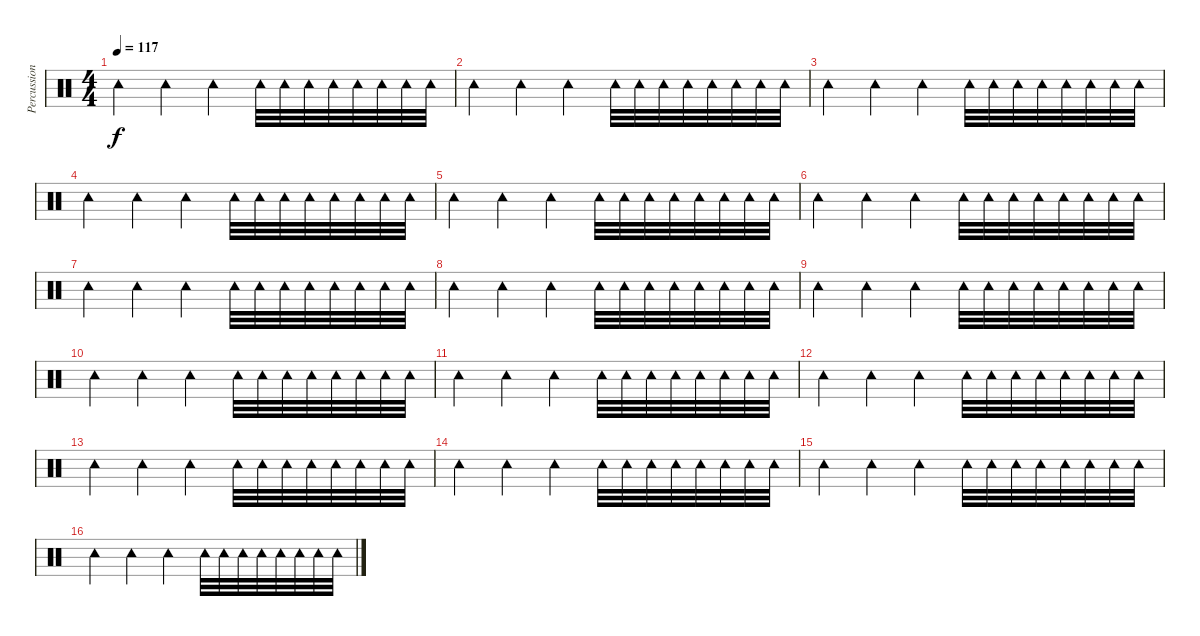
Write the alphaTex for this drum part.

\track ("Percussion" "Percussion") {instrument percussion}
\staff {score}
\articulation defaults
\ts (4 4)
\tempo 117
\clef neutral
\ks c "Tambourine (hit)".4{dy f} "Tambourine (hit)".4 "Tambourine (hit)".4 "Tambourine (hit)".32 "Tambourine (hit)".32 "Tambourine (hit)".32 "Tambourine (hit)".32 "Tambourine (hit)".32 "Tambourine (hit)".32 "Tambourine (hit)".32 "Tambourine (hit)".32
|
"Tambourine (hit)".4 "Tambourine (hit)".4 "Tambourine (hit)".4 "Tambourine (hit)".32 "Tambourine (hit)".32 "Tambourine (hit)".32 "Tambourine (hit)".32 "Tambourine (hit)".32 "Tambourine (hit)".32 "Tambourine (hit)".32 "Tambourine (hit)".32 |
"Tambourine (hit)".4 "Tambourine (hit)".4 "Tambourine (hit)".4 "Tambourine (hit)".32 "Tambourine (hit)".32 "Tambourine (hit)".32 "Tambourine (hit)".32 "Tambourine (hit)".32 "Tambourine (hit)".32 "Tambourine (hit)".32 "Tambourine (hit)".32 |
"Tambourine (hit)".4 "Tambourine (hit)".4 "Tambourine (hit)".4 "Tambourine (hit)".32 "Tambourine (hit)".32 "Tambourine (hit)".32 "Tambourine (hit)".32 "Tambourine (hit)".32 "Tambourine (hit)".32 "Tambourine (hit)".32 "Tambourine (hit)".32 |
"Tambourine (hit)".4 "Tambourine (hit)".4 "Tambourine (hit)".4 "Tambourine (hit)".32 "Tambourine (hit)".32 "Tambourine (hit)".32 "Tambourine (hit)".32 "Tambourine (hit)".32 "Tambourine (hit)".32 "Tambourine (hit)".32 "Tambourine (hit)".32 |
"Tambourine (hit)".4 "Tambourine (hit)".4 "Tambourine (hit)".4 "Tambourine (hit)".32 "Tambourine (hit)".32 "Tambourine (hit)".32 "Tambourine (hit)".32 "Tambourine (hit)".32 "Tambourine (hit)".32 "Tambourine (hit)".32 "Tambourine (hit)".32 |
"Tambourine (hit)".4 "Tambourine (hit)".4 "Tambourine (hit)".4 "Tambourine (hit)".32 "Tambourine (hit)".32 "Tambourine (hit)".32 "Tambourine (hit)".32 "Tambourine (hit)".32 "Tambourine (hit)".32 "Tambourine (hit)".32 "Tambourine (hit)".32 |
"Tambourine (hit)".4 "Tambourine (hit)".4 "Tambourine (hit)".4 "Tambourine (hit)".32 "Tambourine (hit)".32 "Tambourine (hit)".32 "Tambourine (hit)".32 "Tambourine (hit)".32 "Tambourine (hit)".32 "Tambourine (hit)".32 "Tambourine (hit)".32 |
"Tambourine (hit)".4 "Tambourine (hit)".4 "Tambourine (hit)".4 "Tambourine (hit)".32 "Tambourine (hit)".32 "Tambourine (hit)".32 "Tambourine (hit)".32 "Tambourine (hit)".32 "Tambourine (hit)".32 "Tambourine (hit)".32 "Tambourine (hit)".32 |
"Tambourine (hit)".4 "Tambourine (hit)".4 "Tambourine (hit)".4 "Tambourine (hit)".32 "Tambourine (hit)".32 "Tambourine (hit)".32 "Tambourine (hit)".32 "Tambourine (hit)".32 "Tambourine (hit)".32 "Tambourine (hit)".32 "Tambourine (hit)".32 |
"Tambourine (hit)".4 "Tambourine (hit)".4 "Tambourine (hit)".4 "Tambourine (hit)".32 "Tambourine (hit)".32 "Tambourine (hit)".32 "Tambourine (hit)".32 "Tambourine (hit)".32 "Tambourine (hit)".32 "Tambourine (hit)".32 "Tambourine (hit)".32 |
"Tambourine (hit)".4 "Tambourine (hit)".4 "Tambourine (hit)".4 "Tambourine (hit)".32 "Tambourine (hit)".32 "Tambourine (hit)".32 "Tambourine (hit)".32 "Tambourine (hit)".32 "Tambourine (hit)".32 "Tambourine (hit)".32 "Tambourine (hit)".32 |
"Tambourine (hit)".4 "Tambourine (hit)".4 "Tambourine (hit)".4 "Tambourine (hit)".32 "Tambourine (hit)".32 "Tambourine (hit)".32 "Tambourine (hit)".32 "Tambourine (hit)".32 "Tambourine (hit)".32 "Tambourine (hit)".32 "Tambourine (hit)".32 |
"Tambourine (hit)".4 "Tambourine (hit)".4 "Tambourine (hit)".4 "Tambourine (hit)".32 "Tambourine (hit)".32 "Tambourine (hit)".32 "Tambourine (hit)".32 "Tambourine (hit)".32 "Tambourine (hit)".32 "Tambourine (hit)".32 "Tambourine (hit)".32 |
"Tambourine (hit)".4 "Tambourine (hit)".4 "Tambourine (hit)".4 "Tambourine (hit)".32 "Tambourine (hit)".32 "Tambourine (hit)".32 "Tambourine (hit)".32 "Tambourine (hit)".32 "Tambourine (hit)".32 "Tambourine (hit)".32 "Tambourine (hit)".32 |
"Tambourine (hit)".4 "Tambourine (hit)".4 "Tambourine (hit)".4 "Tambourine (hit)".32 "Tambourine (hit)".32 "Tambourine (hit)".32 "Tambourine (hit)".32 "Tambourine (hit)".32 "Tambourine (hit)".32 "Tambourine (hit)".32 "Tambourine (hit)".32
